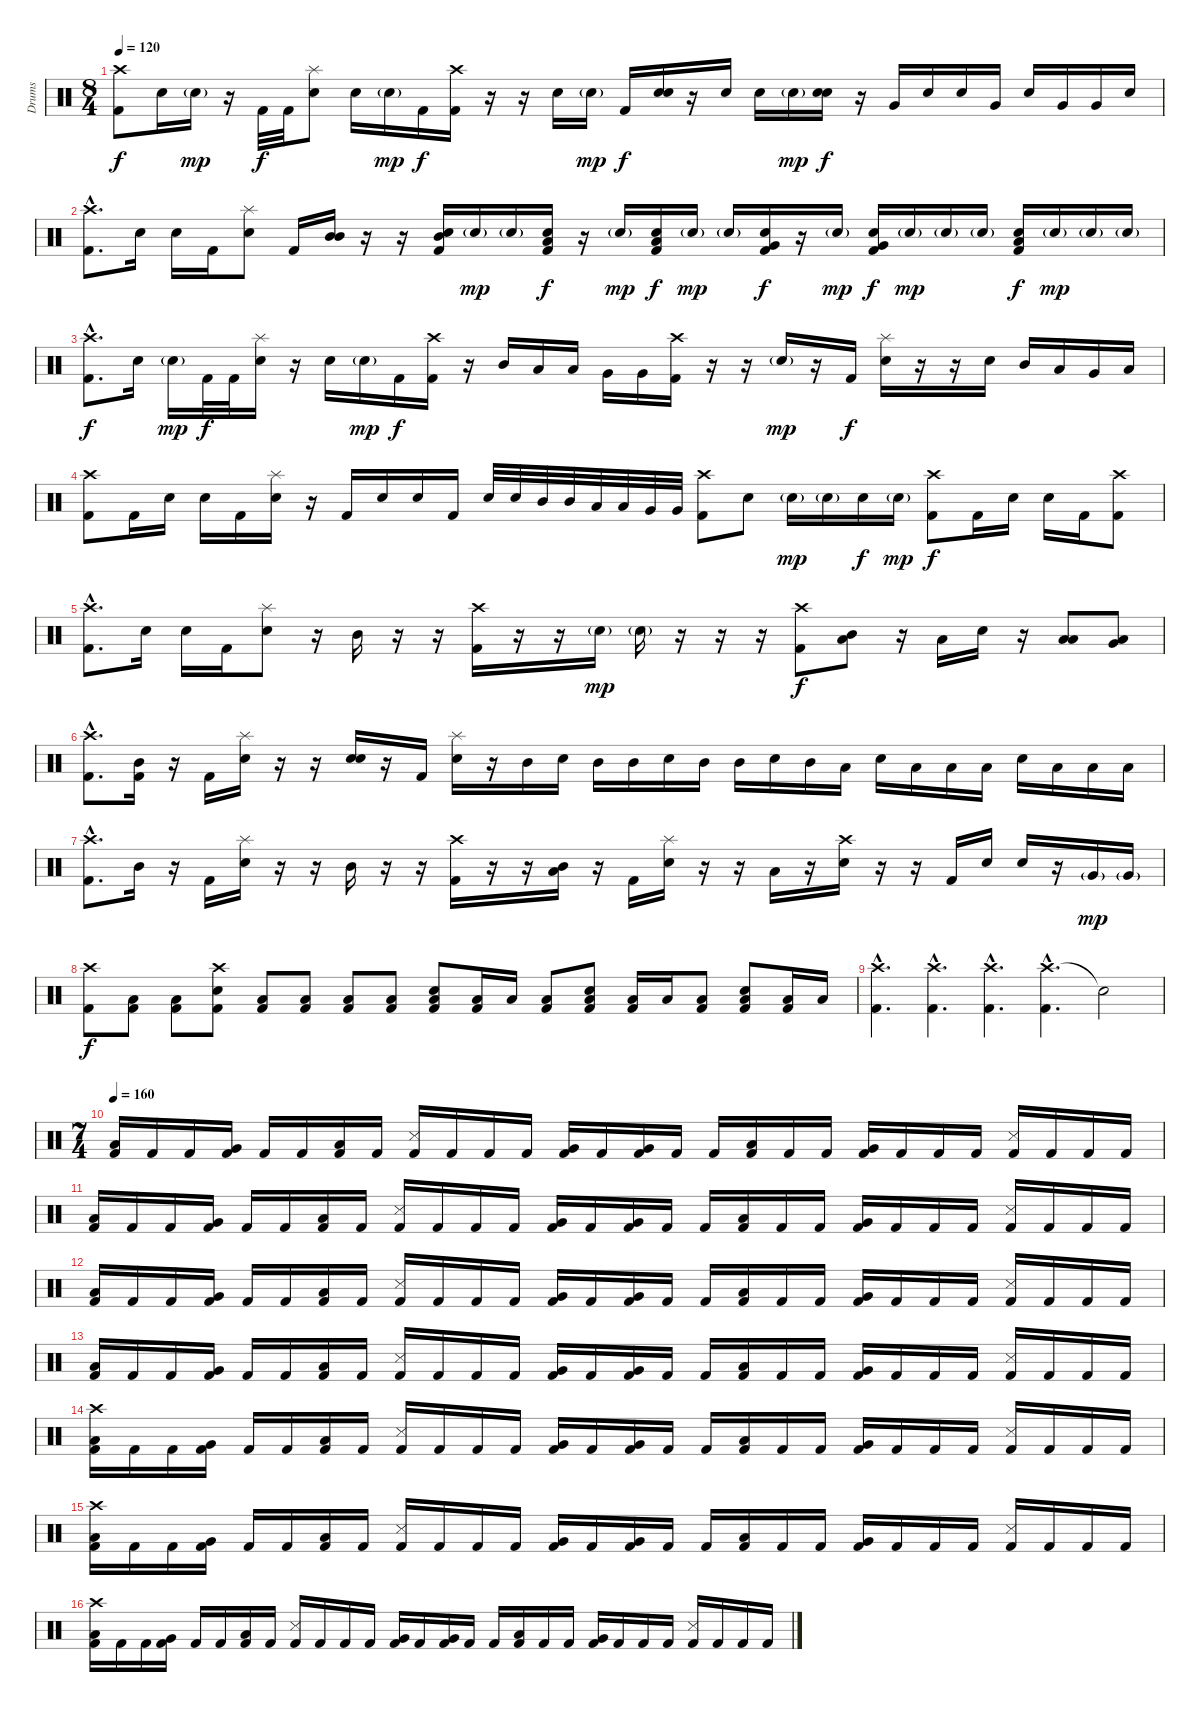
\track ("Drums" "Drums") {instrument percussion}
\staff {score}
\articulation defaults
\ts (8 4)
\tempo 120
\clef neutral
\ks c
("Crash high (hit)" "Kick (hit) 2").8{dy f} "Snare (hit) 2".16 "Snare (hit) 2"{g}.16{dy mp} r.16 "Kick (hit) 2".32{dy f} "Kick (hit) 2".32 ("Splash (hit)" "Snare (hit) 2").8 "Snare (hit) 2".16 "Snare (hit) 2"{g}.16{dy mp} "Kick (hit) 2".16{dy f} ("Crash high (hit)" "Kick (hit) 2").16 r.16 r.16 "Snare (hit) 2".16 "Snare (hit) 2"{g}.16{dy mp} "Kick (hit) 2".16{dy f} ("Snare (hit) 2" "Snare (hit) 2").16 r.16 "Snare (hit) 2".16 "Snare (hit) 2".16 "Snare (hit) 2"{g}.16{dy mp} ("Snare (hit) 2" "Snare (hit) 2").16{dy f} r.16 "Very Low Tom (hit)".16 "Snare (hit) 2".16 "Snare (hit) 2".16 "Very Low Tom (hit)".16 "Snare (hit) 2".16 "Very Low Tom (hit)".16 "Very Low Tom (hit)".16 "Snare (hit) 2".16 |
("Crash high (hit)"{hac} "Kick (hit) 2"{hac}).8{d} "Snare (hit) 2".16 "Snare (hit) 2".16 "Kick (hit) 2".16 ("Splash (hit)" "Snare (hit) 2").8 "Kick (hit) 2".16 ("Mid Tom (hit)" "Mid Tom (hit)").16 r.16 r.16 ("Mid Tom (hit)" "Snare (hit) 2" "Kick (hit) 2").16 "Snare (hit) 2"{g}.16{dy mp} "Snare (hit) 2"{g}.16 ("Low Tom (hit)" "Snare (hit) 2" "Kick (hit) 2").16{dy f} r.16 "Snare (hit) 2"{g}.16{dy mp} ("Low Tom (hit)" "Snare (hit) 2" "Kick (hit) 2").16{dy f} "Snare (hit) 2"{g}.16{dy mp} "Snare (hit) 2"{g}.16 ("Very Low Tom (hit)" "Snare (hit) 2" "Kick (hit) 2").16{dy f} r.16 "Snare (hit) 2"{g}.16{dy mp} ("Very Low Tom (hit)" "Snare (hit) 2" "Kick (hit) 2").16{dy f} "Snare (hit) 2"{g}.16{dy mp} "Snare (hit) 2"{g}.16 "Snare (hit) 2"{g}.16 ("Low Floor Tom (hit)" "Snare (hit) 2" "Kick (hit) 2").16{dy f} "Snare (hit) 2"{g}.16{dy mp} "Snare (hit) 2"{g}.16 "Snare (hit) 2"{g}.16 |
("Crash high (hit)"{hac} "Kick (hit) 2"{hac}).8{d dy f} "Snare (hit) 2".16 "Snare (hit) 2"{g}.16{dy mp} "Kick (hit) 2".32{dy f} "Kick (hit) 2".32 ("Splash (hit)" "Snare (hit) 2").16 r.16 "Snare (hit) 2".16 "Snare (hit) 2"{g}.16{dy mp} "Kick (hit) 2".16{dy f} ("Crash high (hit)" "Kick (hit) 2").16 r.16 "Mid Tom (hit)".16 "Low Tom (hit)".16 "Low Tom (hit)".16 "Very Low Tom (hit)".16 "Very Low Tom (hit)".16 ("Crash high (hit)" "Kick (hit) 2").16 r.16 r.16 "Snare (hit) 2"{g}.16{dy mp} r.16 "Kick (hit) 2".16{dy f} ("Splash (hit)" "Snare (hit) 2").16 r.16 r.16 "Snare (hit) 2".16 "Mid Tom (hit)".16 "Low Tom (hit)".16 "Very Low Tom (hit)".16 "Low Floor Tom (hit)".16 |
("Crash high (hit)" "Kick (hit) 2").8 "Kick (hit) 2".16 "Snare (hit) 2".16 "Snare (hit) 2".16 "Kick (hit) 2".16 ("Splash (hit)" "Snare (hit) 2").16 r.16 "Kick (hit) 2".16 "Snare (hit) 2".16 "Snare (hit) 2".16 "Kick (hit) 2".16 "Snare (hit) 2".32 "Snare (hit) 2".32 "Mid Tom (hit)".32 "Mid Tom (hit)".32 "Low Tom (hit)".32 "Low Tom (hit)".32 "Very Low Tom (hit)".32 "Very Low Tom (hit)".32 ("Crash high (hit)" "Kick (hit) 2").8 "Snare (hit) 2".8 "Snare (hit) 2"{g}.16{dy mp} "Snare (hit) 2"{g}.16 "Snare (hit) 2".16{dy f} "Snare (hit) 2"{g}.16{dy mp} ("Crash high (hit)" "Kick (hit) 2").8{dy f} "Kick (hit) 2".16 "Snare (hit) 2".16 "Snare (hit) 2".16 "Kick (hit) 2".16 ("Crash high (hit)" "Kick (hit) 2").8 |
("Crash high (hit)"{hac} "Kick (hit) 2"{hac}).8{d} "Snare (hit) 2".16 "Snare (hit) 2".16 "Kick (hit) 2".16 ("Splash (hit)" "Snare (hit) 2").8 r.16 "Mid Tom (hit)".16 r.16 r.16 ("Crash high (hit)" "Kick (hit) 2").16 r.16 r.16 "Snare (hit) 2"{g}.16{dy mp} "Snare (hit) 2"{g}.16 r.16 r.16 r.16 ("Crash high (hit)" "Kick (hit) 2").8{dy f} ("Mid Tom (hit)" "Low Floor Tom (hit)").8 r.16 "Low Tom (hit)".16 "Snare (hit) 2".16 r.16 ("Low Tom (hit)" "Low Floor Tom (hit)").8 ("Very Low Tom (hit)" "Low Floor Tom (hit)").8 |
("Crash high (hit)"{hac} "Kick (hit) 2"{hac}).8{d} ("Mid Tom (hit)" "Kick (hit) 2").16 r.16 "Kick (hit) 2".16 ("Splash (hit)" "Snare (hit) 2").16 r.16 r.16 ("Snare (hit) 2" "Snare (hit) 2").16 r.16 "Kick (hit) 2".16 ("Splash (hit)" "Snare (hit) 2").16 r.16 "Mid Tom (hit)".16 "Snare (hit) 2".16 "Mid Tom (hit)".16 "Mid Tom (hit)".16 "Snare (hit) 2".16 "Mid Tom (hit)".16 "Mid Tom (hit)".16 "Snare (hit) 2".16 "Mid Tom (hit)".16 "Low Tom (hit)".16 "Snare (hit) 2".16 "Low Tom (hit)".16 "Low Tom (hit)".16 "Low Tom (hit)".16 "Snare (hit) 2".16 "Low Tom (hit)".16 "Low Tom (hit)".16 "Low Tom (hit)".16 |
("Crash high (hit)"{hac} "Kick (hit) 2"{hac}).8{d} "Mid Tom (hit)".16 r.16 "Kick (hit) 2".16 ("Splash (hit)" "Snare (hit) 2").16 r.16 r.16 "Mid Tom (hit)".16 r.16 r.16 ("Crash high (hit)" "Kick (hit) 2").16 r.16 r.16 ("Mid Tom (hit)" "Low Tom (hit)").16 r.16 "Kick (hit) 2".16 ("Splash (hit)" "Snare (hit) 2").16 r.16 r.16 "Low Tom (hit)".16 r.16 ("Crash high (hit)" "Snare (hit) 2").16 r.16 r.16 "Kick (hit) 2".16 "Snare (hit) 2".16 "Snare (hit) 2".16 r.16 "Very Low Tom (hit)"{g}.16{dy mp} "Very Low Tom (hit)"{g}.16 |
("Crash high (hit)" "Kick (hit) 2").8{dy f} ("Low Floor Tom (hit)" "Kick (hit) 2").8 ("Low Floor Tom (hit)" "Kick (hit) 2").8 ("Crash high (hit)" "Snare (hit) 2" "Kick (hit) 2").8 ("Low Floor Tom (hit)" "Kick (hit) 2").8 ("Low Floor Tom (hit)" "Kick (hit) 2").8 ("Low Floor Tom (hit)" "Kick (hit) 2").8 ("Low Floor Tom (hit)" "Kick (hit) 2").8 ("Low Floor Tom (hit)" "Snare (hit) 2" "Kick (hit) 2").8 ("Low Floor Tom (hit)" "Kick (hit) 2").16 "Low Floor Tom (hit)".16 ("Low Floor Tom (hit)" "Kick (hit) 2").8 ("Low Floor Tom (hit)" "Snare (hit) 2" "Kick (hit) 2").8 ("Low Floor Tom (hit)" "Kick (hit) 2").16 "Low Floor Tom (hit)".16 ("Low Floor Tom (hit)" "Kick (hit) 2").8 ("Low Floor Tom (hit)" "Snare (hit) 2" "Kick (hit) 2").8 ("Low Floor Tom (hit)" "Kick (hit) 2").16 "Low Floor Tom (hit)".16 |
("Crash high (hit)"{hac} "Kick (hit) 2"{hac}).4{d} ("Crash high (hit)"{hac} "Kick (hit) 2"{hac}).4{d} ("Crash high (hit)"{hac} "Kick (hit) 2"{hac}).4{d} ("Crash high (hit)"{hac} "Kick (hit) 2"{hac}).4{d} "Snare (hit)"{t}.2 |
\ts (7 4)
\tempo 160
("Low Floor Tom (hit)" "Kick (hit) 2").16 "Kick (hit) 2".16 "Kick (hit) 2".16 ("Very Low Tom (hit)" "Kick (hit) 2").16 "Kick (hit) 2".16 "Kick (hit) 2".16 ("Low Floor Tom (hit)" "Kick (hit) 2").16 "Kick (hit) 2".16 ("Snare (side stick) 3" "Kick (hit) 2").16 "Kick (hit) 2".16 "Kick (hit) 2".16 "Kick (hit) 2".16 ("Very Low Tom (hit)" "Kick (hit) 2").16 "Kick (hit) 2".16 ("Very Low Tom (hit)" "Kick (hit) 2").16 "Kick (hit) 2".16 "Kick (hit) 2".16 ("Low Floor Tom (hit)" "Kick (hit) 2").16 "Kick (hit) 2".16 "Kick (hit) 2".16 ("Very Low Tom (hit)" "Kick (hit) 2").16 "Kick (hit) 2".16 "Kick (hit) 2".16 "Kick (hit) 2".16 ("Snare (side stick) 3" "Kick (hit) 2").16 "Kick (hit) 2".16 "Kick (hit) 2".16 "Kick (hit) 2".16 |
("Low Floor Tom (hit)" "Kick (hit) 2").16 "Kick (hit) 2".16 "Kick (hit) 2".16 ("Very Low Tom (hit)" "Kick (hit) 2").16 "Kick (hit) 2".16 "Kick (hit) 2".16 ("Low Floor Tom (hit)" "Kick (hit) 2").16 "Kick (hit) 2".16 ("Snare (side stick) 3" "Kick (hit) 2").16 "Kick (hit) 2".16 "Kick (hit) 2".16 "Kick (hit) 2".16 ("Very Low Tom (hit)" "Kick (hit) 2").16 "Kick (hit) 2".16 ("Very Low Tom (hit)" "Kick (hit) 2").16 "Kick (hit) 2".16 "Kick (hit) 2".16 ("Low Floor Tom (hit)" "Kick (hit) 2").16 "Kick (hit) 2".16 "Kick (hit) 2".16 ("Very Low Tom (hit)" "Kick (hit) 2").16 "Kick (hit) 2".16 "Kick (hit) 2".16 "Kick (hit) 2".16 ("Snare (side stick) 3" "Kick (hit) 2").16 "Kick (hit) 2".16 "Kick (hit) 2".16 "Kick (hit) 2".16 |
("Low Floor Tom (hit)" "Kick (hit) 2").16 "Kick (hit) 2".16 "Kick (hit) 2".16 ("Very Low Tom (hit)" "Kick (hit) 2").16 "Kick (hit) 2".16 "Kick (hit) 2".16 ("Low Floor Tom (hit)" "Kick (hit) 2").16 "Kick (hit) 2".16 ("Snare (side stick) 3" "Kick (hit) 2").16 "Kick (hit) 2".16 "Kick (hit) 2".16 "Kick (hit) 2".16 ("Very Low Tom (hit)" "Kick (hit) 2").16 "Kick (hit) 2".16 ("Very Low Tom (hit)" "Kick (hit) 2").16 "Kick (hit) 2".16 "Kick (hit) 2".16 ("Low Floor Tom (hit)" "Kick (hit) 2").16 "Kick (hit) 2".16 "Kick (hit) 2".16 ("Very Low Tom (hit)" "Kick (hit) 2").16 "Kick (hit) 2".16 "Kick (hit) 2".16 "Kick (hit) 2".16 ("Snare (side stick) 3" "Kick (hit) 2").16 "Kick (hit) 2".16 "Kick (hit) 2".16 "Kick (hit) 2".16 |
("Low Floor Tom (hit)" "Kick (hit) 2").16 "Kick (hit) 2".16 "Kick (hit) 2".16 ("Very Low Tom (hit)" "Kick (hit) 2").16 "Kick (hit) 2".16 "Kick (hit) 2".16 ("Low Floor Tom (hit)" "Kick (hit) 2").16 "Kick (hit) 2".16 ("Snare (side stick) 3" "Kick (hit) 2").16 "Kick (hit) 2".16 "Kick (hit) 2".16 "Kick (hit) 2".16 ("Very Low Tom (hit)" "Kick (hit) 2").16 "Kick (hit) 2".16 ("Very Low Tom (hit)" "Kick (hit) 2").16 "Kick (hit) 2".16 "Kick (hit) 2".16 ("Low Floor Tom (hit)" "Kick (hit) 2").16 "Kick (hit) 2".16 "Kick (hit) 2".16 ("Very Low Tom (hit)" "Kick (hit) 2").16 "Kick (hit) 2".16 "Kick (hit) 2".16 "Kick (hit) 2".16 ("Snare (side stick) 3" "Kick (hit) 2").16 "Kick (hit) 2".16 "Kick (hit) 2".16 "Kick (hit) 2".16 |
("Crash high (hit)" "Low Floor Tom (hit)" "Kick (hit) 2").16 "Kick (hit) 2".16 "Kick (hit) 2".16 ("Very Low Tom (hit)" "Kick (hit) 2").16 "Kick (hit) 2".16 "Kick (hit) 2".16 ("Low Floor Tom (hit)" "Kick (hit) 2").16 "Kick (hit) 2".16 ("Snare (side stick) 3" "Kick (hit) 2").16 "Kick (hit) 2".16 "Kick (hit) 2".16 "Kick (hit) 2".16 ("Very Low Tom (hit)" "Kick (hit) 2").16 "Kick (hit) 2".16 ("Very Low Tom (hit)" "Kick (hit) 2").16 "Kick (hit) 2".16 "Kick (hit) 2".16 ("Low Floor Tom (hit)" "Kick (hit) 2").16 "Kick (hit) 2".16 "Kick (hit) 2".16 ("Very Low Tom (hit)" "Kick (hit) 2").16 "Kick (hit) 2".16 "Kick (hit) 2".16 "Kick (hit) 2".16 ("Snare (side stick) 3" "Kick (hit) 2").16 "Kick (hit) 2".16 "Kick (hit) 2".16 "Kick (hit) 2".16 |
("Crash high (hit)" "Low Floor Tom (hit)" "Kick (hit) 2").16 "Kick (hit) 2".16 "Kick (hit) 2".16 ("Very Low Tom (hit)" "Kick (hit) 2").16 "Kick (hit) 2".16 "Kick (hit) 2".16 ("Low Floor Tom (hit)" "Kick (hit) 2").16 "Kick (hit) 2".16 ("Snare (side stick) 3" "Kick (hit) 2").16 "Kick (hit) 2".16 "Kick (hit) 2".16 "Kick (hit) 2".16 ("Very Low Tom (hit)" "Kick (hit) 2").16 "Kick (hit) 2".16 ("Very Low Tom (hit)" "Kick (hit) 2").16 "Kick (hit) 2".16 "Kick (hit) 2".16 ("Low Floor Tom (hit)" "Kick (hit) 2").16 "Kick (hit) 2".16 "Kick (hit) 2".16 ("Very Low Tom (hit)" "Kick (hit) 2").16 "Kick (hit) 2".16 "Kick (hit) 2".16 "Kick (hit) 2".16 ("Snare (side stick) 3" "Kick (hit) 2").16 "Kick (hit) 2".16 "Kick (hit) 2".16 "Kick (hit) 2".16 |
("Crash high (hit)" "Low Floor Tom (hit)" "Kick (hit) 2").16 "Kick (hit) 2".16 "Kick (hit) 2".16 ("Very Low Tom (hit)" "Kick (hit) 2").16 "Kick (hit) 2".16 "Kick (hit) 2".16 ("Low Floor Tom (hit)" "Kick (hit) 2").16 "Kick (hit) 2".16 ("Snare (side stick) 3" "Kick (hit) 2").16 "Kick (hit) 2".16 "Kick (hit) 2".16 "Kick (hit) 2".16 ("Very Low Tom (hit)" "Kick (hit) 2").16 "Kick (hit) 2".16 ("Very Low Tom (hit)" "Kick (hit) 2").16 "Kick (hit) 2".16 "Kick (hit) 2".16 ("Low Floor Tom (hit)" "Kick (hit) 2").16 "Kick (hit) 2".16 "Kick (hit) 2".16 ("Very Low Tom (hit)" "Kick (hit) 2").16 "Kick (hit) 2".16 "Kick (hit) 2".16 "Kick (hit) 2".16 ("Snare (side stick) 3" "Kick (hit) 2").16 "Kick (hit) 2".16 "Kick (hit) 2".16 "Kick (hit) 2".16
